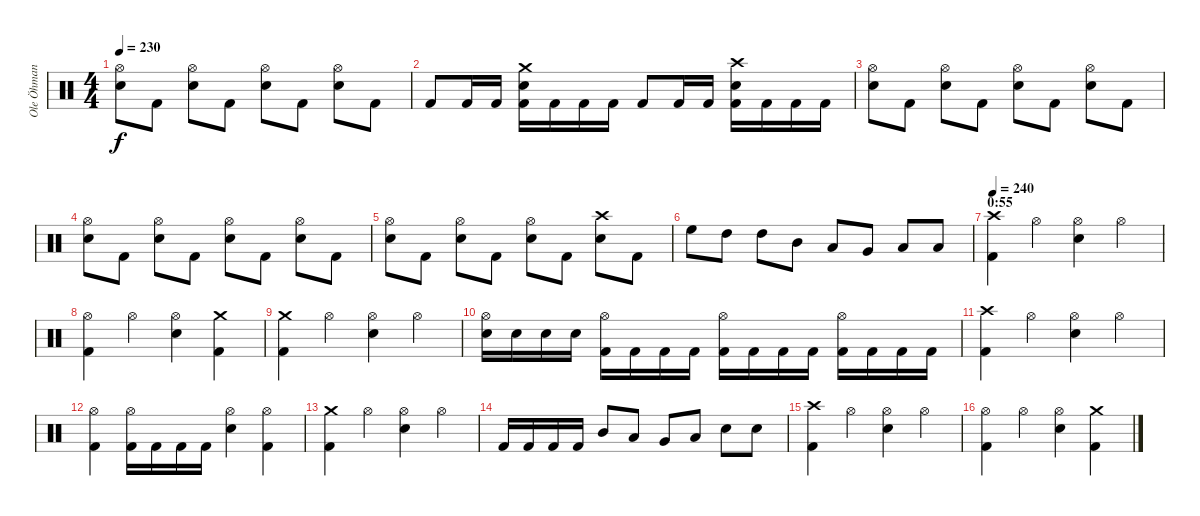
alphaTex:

\track ("Ole Öhman" "Ole Öhman") {instrument percussion}
\staff {score}
\articulation defaults
\ts (4 4)
\tempo 230
\clef neutral
\ks c
("Hi-Hat (open)" "Electric Snare (hit)").8{dy f} "Kick (hit) 2".8 ("Hi-Hat (open)" "Electric Snare (hit)").8 "Kick (hit) 2".8 ("Hi-Hat (open)" "Electric Snare (hit)").8 "Kick (hit) 2".8 ("Hi-Hat (open)" "Electric Snare (hit)").8 "Kick (hit) 2".8 |
"Kick (hit) 2".8 "Kick (hit) 2".16 "Kick (hit) 2".16 ("Crash medium (hit)" "Electric Snare (hit)" "Kick (hit) 2").16 "Kick (hit) 2".16 "Kick (hit) 2".16 "Kick (hit) 2".16 "Kick (hit) 2".8 "Kick (hit) 2".16 "Kick (hit) 2".16 ("Crash high (hit)" "Electric Snare (hit)" "Kick (hit) 2").16 "Kick (hit) 2".16 "Kick (hit) 2".16 "Kick (hit) 2".16 |
("Hi-Hat (open)" "Electric Snare (hit)").8 "Kick (hit) 2".8 ("Hi-Hat (open)" "Electric Snare (hit)").8 "Kick (hit) 2".8 ("Hi-Hat (open)" "Electric Snare (hit)").8 "Kick (hit) 2".8 ("Hi-Hat (open)" "Electric Snare (hit)").8 "Kick (hit) 2".8 |
("Hi-Hat (open)" "Electric Snare (hit)").8 "Kick (hit) 2".8 ("Hi-Hat (open)" "Electric Snare (hit)").8 "Kick (hit) 2".8 ("Hi-Hat (open)" "Electric Snare (hit)").8 "Kick (hit) 2".8 ("Hi-Hat (open)" "Electric Snare (hit)").8 "Kick (hit) 2".8 |
("Hi-Hat (open)" "Electric Snare (hit)").8 "Kick (hit) 2".8 ("Hi-Hat (open)" "Electric Snare (hit)").8 "Kick (hit) 2".8 ("Hi-Hat (open)" "Electric Snare (hit)").8 "Kick (hit) 2".8 ("Crash high (hit)" "Electric Snare (hit)").8 "Kick (hit) 2".8 |
"High Floor Tom (hit)".8 "High Tom (hit)".8 "High Tom (hit)".8 "Mid Tom (hit)".8 "Low Tom (hit)".8 "Very Low Tom (hit)".8 "Low Floor Tom (hit)".8 "Low Floor Tom (hit)".8 |
\section ("" "0:55")
\tempo 240
("Crash high (hit)" "Kick (hit) 2").4 "Hi-Hat (open)".4 ("Hi-Hat (open)" "Electric Snare (hit)").4 "Hi-Hat (open)".4 |
("Hi-Hat (open)" "Kick (hit) 2").4 "Hi-Hat (open)".4 ("Hi-Hat (open)" "Electric Snare (hit)").4 ("Crash medium (hit)" "Kick (hit) 2").4 |
("Crash medium (hit)" "Kick (hit) 2").4 "Hi-Hat (open)".4 ("Hi-Hat (open)" "Electric Snare (hit)").4 "Hi-Hat (open)".4 |
("Hi-Hat (open)" "Electric Snare (hit)").16 "Electric Snare (hit)".16 "Electric Snare (hit)".16 "Electric Snare (hit)".16 ("Hi-Hat (open)" "Kick (hit) 2").16 "Kick (hit) 2".16 "Kick (hit) 2".16 "Kick (hit) 2".16 ("Hi-Hat (open)" "Kick (hit) 2").16 "Kick (hit) 2".16 "Kick (hit) 2".16 "Kick (hit) 2".16 ("Hi-Hat (open)" "Kick (hit) 2").16 "Kick (hit) 2".16 "Kick (hit) 2".16 "Kick (hit) 2".16 |
("Crash high (hit)" "Kick (hit) 2").4 "Hi-Hat (open)".4 ("Hi-Hat (open)" "Electric Snare (hit)").4 "Hi-Hat (open)".4 |
("Hi-Hat (open)" "Kick (hit) 2").4 ("Hi-Hat (open)" "Kick (hit) 2").16 "Kick (hit) 2".16 "Kick (hit) 2".16 "Kick (hit) 2".16 ("Hi-Hat (open)" "Electric Snare (hit)").4 ("Hi-Hat (open)" "Kick (hit) 2").4 |
("Crash medium (hit)" "Kick (hit) 2").4 "Hi-Hat (open)".4 ("Hi-Hat (open)" "Electric Snare (hit)").4 "Hi-Hat (open)".4 |
"Kick (hit) 2".16 "Kick (hit) 2".16 "Kick (hit) 2".16 "Kick (hit) 2".16 "Mid Tom (hit)".8 "Low Tom (hit)".8 "Very Low Tom (hit)".8 "Low Floor Tom (hit)".8 "Electric Snare (hit)".8 "Electric Snare (hit)".8 |
("Crash high (hit)" "Kick (hit) 2").4 "Hi-Hat (open)".4 ("Hi-Hat (open)" "Electric Snare (hit)").4 "Hi-Hat (open)".4 |
("Hi-Hat (open)" "Kick (hit) 2").4 "Hi-Hat (open)".4 ("Hi-Hat (open)" "Electric Snare (hit)").4 ("Crash medium (hit)" "Kick (hit) 2").4
